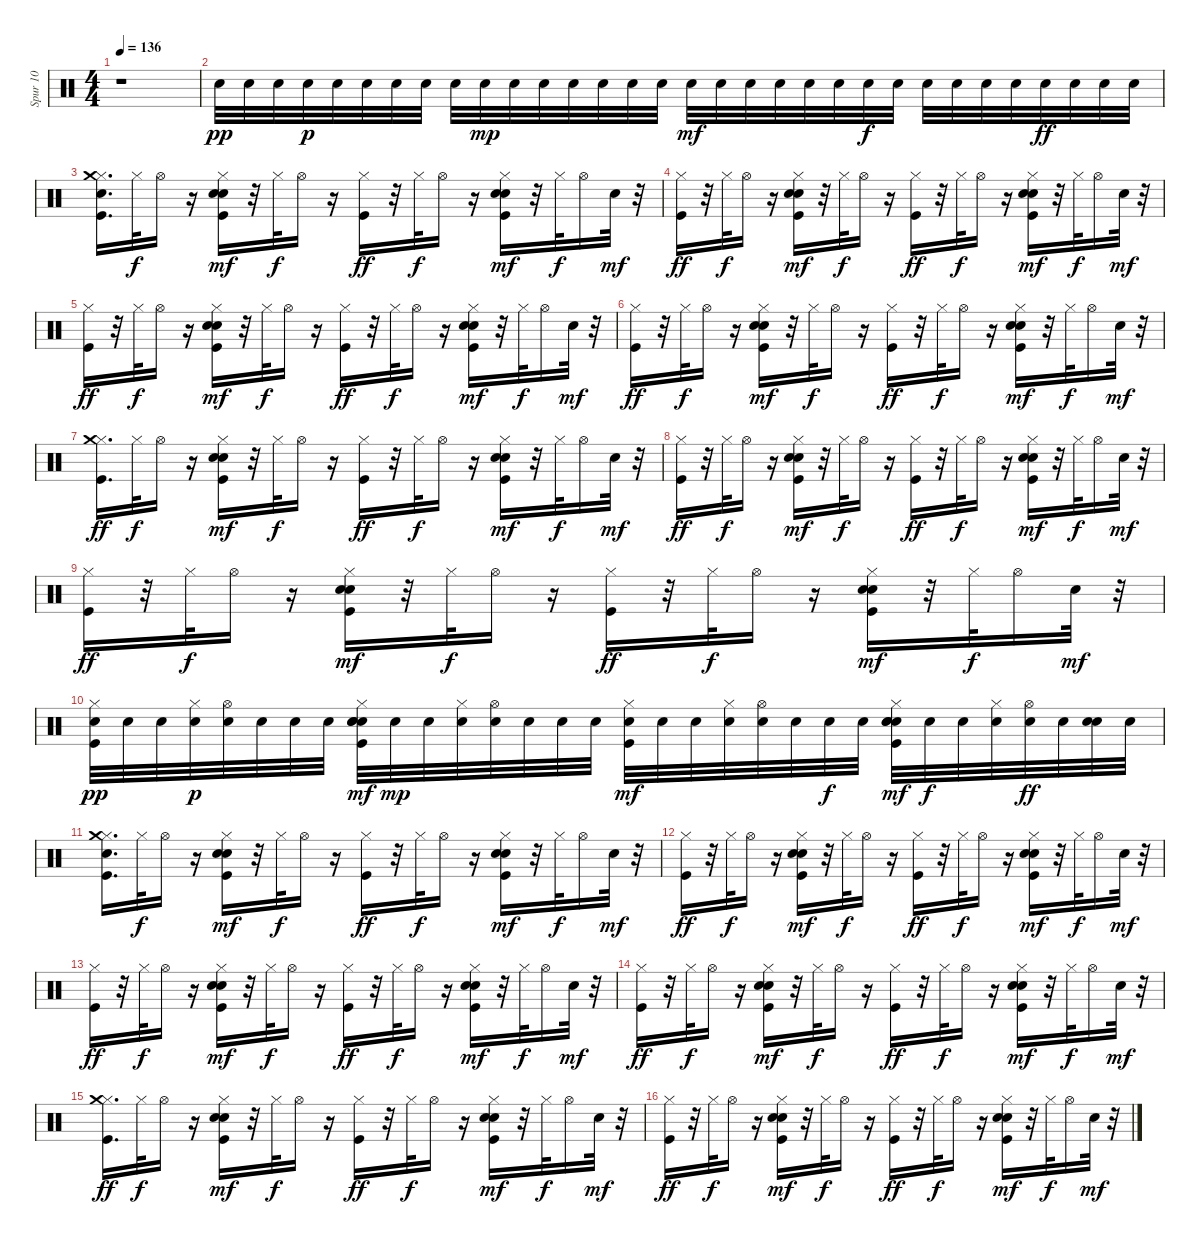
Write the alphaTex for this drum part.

\track ("Spur 10" "Spur 10") {instrument percussion}
\staff {score}
\articulation defaults
\ts (4 4)
\tempo 136
\clef neutral
\ks c
r.1{dy pp} |
"Snare (hit) 2".32{volume 12} "Snare (hit) 2".32 "Snare (hit) 2".32 "Snare (hit) 2".32{dy p} "Snare (hit) 2".32 "Snare (hit) 2".32 "Snare (hit) 2".32 "Snare (hit) 2".32 "Snare (hit) 2".32 "Snare (hit) 2".32{dy mp} "Snare (hit) 2".32 "Snare (hit) 2".32 "Snare (hit) 2".32 "Snare (hit) 2".32 "Snare (hit) 2".32 "Snare (hit) 2".32 "Snare (hit) 2".32{dy mf} "Snare (hit) 2".32 "Snare (hit) 2".32 "Snare (hit) 2".32 "Snare (hit) 2".32 "Snare (hit) 2".32 "Snare (hit) 2".32{dy f} "Snare (hit) 2".32 "Snare (hit) 2".32 "Snare (hit) 2".32 "Snare (hit) 2".32 "Snare (hit) 2".32 "Snare (hit) 2".32{dy ff} "Snare (hit) 2".32 "Snare (hit) 2".32 "Snare (hit) 2".32 |
("Kick (hit)" "Hi-Hat (closed)" "Crash medium (hit)" "Snare (hit) 2").16{d} "Hi-Hat (closed)".32{dy f} "Hi-Hat (open)".16 r.16 ("Kick (hit)" "Snare (hit) 2" "Hi-Hat (closed)" "Hand Clap (hit)").16{dy mf} r.32 "Hi-Hat (closed)".32{dy f} "Hi-Hat (open)".16 r.16 ("Kick (hit)" "Hi-Hat (closed)").16{dy ff} r.32 "Hi-Hat (closed)".32{dy f} "Hi-Hat (open)".16 r.16 ("Kick (hit)" "Snare (hit) 2" "Hi-Hat (closed)" "Hand Clap (hit)").16{dy mf} r.32 "Hi-Hat (closed)".32{dy f} "Hi-Hat (open)".16 "Snare (hit) 2".32{dy mf} r.32 |
("Kick (hit)" "Hi-Hat (closed)").16{dy ff} r.32 "Hi-Hat (closed)".32{dy f} "Hi-Hat (open)".16 r.16 ("Kick (hit)" "Snare (hit) 2" "Hi-Hat (closed)" "Hand Clap (hit)").16{dy mf} r.32 "Hi-Hat (closed)".32{dy f} "Hi-Hat (open)".16 r.16 ("Kick (hit)" "Hi-Hat (closed)").16{dy ff} r.32 "Hi-Hat (closed)".32{dy f} "Hi-Hat (open)".16 r.16 ("Kick (hit)" "Snare (hit) 2" "Hi-Hat (closed)" "Hand Clap (hit)").16{dy mf} r.32 "Hi-Hat (closed)".32{dy f} "Hi-Hat (open)".16 "Snare (hit) 2".32{dy mf} r.32 |
("Kick (hit)" "Hi-Hat (closed)").16{dy ff} r.32 "Hi-Hat (closed)".32{dy f} "Hi-Hat (open)".16 r.16 ("Kick (hit)" "Snare (hit) 2" "Hi-Hat (closed)" "Hand Clap (hit)").16{dy mf} r.32 "Hi-Hat (closed)".32{dy f} "Hi-Hat (open)".16 r.16 ("Kick (hit)" "Hi-Hat (closed)").16{dy ff} r.32 "Hi-Hat (closed)".32{dy f} "Hi-Hat (open)".16 r.16 ("Kick (hit)" "Snare (hit) 2" "Hi-Hat (closed)" "Hand Clap (hit)").16{dy mf} r.32 "Hi-Hat (closed)".32{dy f} "Hi-Hat (open)".16 "Snare (hit) 2".32{dy mf} r.32 |
("Kick (hit)" "Hi-Hat (closed)").16{dy ff} r.32 "Hi-Hat (closed)".32{dy f} "Hi-Hat (open)".16 r.16 ("Kick (hit)" "Snare (hit) 2" "Hi-Hat (closed)" "Hand Clap (hit)").16{dy mf} r.32 "Hi-Hat (closed)".32{dy f} "Hi-Hat (open)".16 r.16 ("Kick (hit)" "Hi-Hat (closed)").16{dy ff} r.32 "Hi-Hat (closed)".32{dy f} "Hi-Hat (open)".16 r.16 ("Kick (hit)" "Snare (hit) 2" "Hi-Hat (closed)" "Hand Clap (hit)").16{dy mf} r.32 "Hi-Hat (closed)".32{dy f} "Hi-Hat (open)".16 "Snare (hit) 2".32{dy mf} r.32 |
("Kick (hit)" "Hi-Hat (closed)" "Crash medium (hit)").16{d dy ff} "Hi-Hat (closed)".32{dy f} "Hi-Hat (open)".16 r.16 ("Kick (hit)" "Snare (hit) 2" "Hi-Hat (closed)" "Hand Clap (hit)").16{dy mf} r.32 "Hi-Hat (closed)".32{dy f} "Hi-Hat (open)".16 r.16 ("Kick (hit)" "Hi-Hat (closed)").16{dy ff} r.32 "Hi-Hat (closed)".32{dy f} "Hi-Hat (open)".16 r.16 ("Kick (hit)" "Snare (hit) 2" "Hi-Hat (closed)" "Hand Clap (hit)").16{dy mf} r.32 "Hi-Hat (closed)".32{dy f} "Hi-Hat (open)".16 "Snare (hit) 2".32{dy mf} r.32 |
("Kick (hit)" "Hi-Hat (closed)").16{dy ff} r.32 "Hi-Hat (closed)".32{dy f} "Hi-Hat (open)".16 r.16 ("Kick (hit)" "Snare (hit) 2" "Hi-Hat (closed)" "Hand Clap (hit)").16{dy mf} r.32 "Hi-Hat (closed)".32{dy f} "Hi-Hat (open)".16 r.16 ("Kick (hit)" "Hi-Hat (closed)").16{dy ff} r.32 "Hi-Hat (closed)".32{dy f} "Hi-Hat (open)".16 r.16 ("Kick (hit)" "Snare (hit) 2" "Hi-Hat (closed)" "Hand Clap (hit)").16{dy mf} r.32 "Hi-Hat (closed)".32{dy f} "Hi-Hat (open)".16 "Snare (hit) 2".32{dy mf} r.32 |
("Kick (hit)" "Hi-Hat (closed)").16{dy ff} r.32 "Hi-Hat (closed)".32{dy f} "Hi-Hat (open)".16 r.16 ("Kick (hit)" "Snare (hit) 2" "Hi-Hat (closed)" "Hand Clap (hit)").16{dy mf} r.32 "Hi-Hat (closed)".32{dy f} "Hi-Hat (open)".16 r.16 ("Kick (hit)" "Hi-Hat (closed)").16{dy ff} r.32 "Hi-Hat (closed)".32{dy f} "Hi-Hat (open)".16 r.16 ("Kick (hit)" "Snare (hit) 2" "Hi-Hat (closed)" "Hand Clap (hit)").16{dy mf} r.32 "Hi-Hat (closed)".32{dy f} "Hi-Hat (open)".16 "Snare (hit) 2".32{dy mf} r.32 |
("Kick (hit)" "Hi-Hat (closed)" "Snare (hit) 2").32{dy pp} "Snare (hit) 2".32 "Snare (hit) 2".32 ("Hi-Hat (closed)" "Snare (hit) 2").32{dy p} ("Hi-Hat (open)" "Snare (hit) 2").32 "Snare (hit) 2".32 "Snare (hit) 2".32 "Snare (hit) 2".32 ("Kick (hit)" "Snare (hit) 2" "Hi-Hat (closed)" "Snare (hit) 2" "Hand Clap (hit)").32{dy mf} "Snare (hit) 2".32{dy mp} "Snare (hit) 2".32 ("Hi-Hat (closed)" "Snare (hit) 2").32 ("Hi-Hat (open)" "Snare (hit) 2").32 "Snare (hit) 2".32 "Snare (hit) 2".32 "Snare (hit) 2".32 ("Kick (hit)" "Hi-Hat (closed)" "Snare (hit) 2").32{dy mf} "Snare (hit) 2".32 "Snare (hit) 2".32 ("Hi-Hat (closed)" "Snare (hit) 2").32 ("Hi-Hat (open)" "Snare (hit) 2").32 "Snare (hit) 2".32 "Snare (hit) 2".32{dy f} "Snare (hit) 2".32 ("Kick (hit)" "Snare (hit) 2" "Hi-Hat (closed)" "Snare (hit) 2" "Hand Clap (hit)").32{dy mf} "Snare (hit) 2".32{dy f} "Snare (hit) 2".32 ("Hi-Hat (closed)" "Snare (hit) 2").32 ("Hi-Hat (open)" "Snare (hit) 2").32{dy ff} "Snare (hit) 2".32 ("Snare (hit) 2" "Snare (hit) 2").32 "Snare (hit) 2".32 |
("Kick (hit)" "Hi-Hat (closed)" "Crash medium (hit)" "Snare (hit) 2").16{d} "Hi-Hat (closed)".32{dy f} "Hi-Hat (open)".16 r.16 ("Kick (hit)" "Snare (hit) 2" "Hi-Hat (closed)" "Hand Clap (hit)").16{dy mf} r.32 "Hi-Hat (closed)".32{dy f} "Hi-Hat (open)".16 r.16 ("Kick (hit)" "Hi-Hat (closed)").16{dy ff} r.32 "Hi-Hat (closed)".32{dy f} "Hi-Hat (open)".16 r.16 ("Kick (hit)" "Snare (hit) 2" "Hi-Hat (closed)" "Hand Clap (hit)").16{dy mf} r.32 "Hi-Hat (closed)".32{dy f} "Hi-Hat (open)".16 "Snare (hit) 2".32{dy mf} r.32 |
("Kick (hit)" "Hi-Hat (closed)").16{dy ff} r.32 "Hi-Hat (closed)".32{dy f} "Hi-Hat (open)".16 r.16 ("Kick (hit)" "Snare (hit) 2" "Hi-Hat (closed)" "Hand Clap (hit)").16{dy mf} r.32 "Hi-Hat (closed)".32{dy f} "Hi-Hat (open)".16 r.16 ("Kick (hit)" "Hi-Hat (closed)").16{dy ff} r.32 "Hi-Hat (closed)".32{dy f} "Hi-Hat (open)".16 r.16 ("Kick (hit)" "Snare (hit) 2" "Hi-Hat (closed)" "Hand Clap (hit)").16{dy mf} r.32 "Hi-Hat (closed)".32{dy f} "Hi-Hat (open)".16 "Snare (hit) 2".32{dy mf} r.32 |
("Kick (hit)" "Hi-Hat (closed)").16{dy ff} r.32 "Hi-Hat (closed)".32{dy f} "Hi-Hat (open)".16 r.16 ("Kick (hit)" "Snare (hit) 2" "Hi-Hat (closed)" "Hand Clap (hit)").16{dy mf} r.32 "Hi-Hat (closed)".32{dy f} "Hi-Hat (open)".16 r.16 ("Kick (hit)" "Hi-Hat (closed)").16{dy ff} r.32 "Hi-Hat (closed)".32{dy f} "Hi-Hat (open)".16 r.16 ("Kick (hit)" "Snare (hit) 2" "Hi-Hat (closed)" "Hand Clap (hit)").16{dy mf} r.32 "Hi-Hat (closed)".32{dy f} "Hi-Hat (open)".16 "Snare (hit) 2".32{dy mf} r.32 |
("Kick (hit)" "Hi-Hat (closed)").16{dy ff} r.32 "Hi-Hat (closed)".32{dy f} "Hi-Hat (open)".16 r.16 ("Kick (hit)" "Snare (hit) 2" "Hi-Hat (closed)" "Hand Clap (hit)").16{dy mf} r.32 "Hi-Hat (closed)".32{dy f} "Hi-Hat (open)".16 r.16 ("Kick (hit)" "Hi-Hat (closed)").16{dy ff} r.32 "Hi-Hat (closed)".32{dy f} "Hi-Hat (open)".16 r.16 ("Kick (hit)" "Snare (hit) 2" "Hi-Hat (closed)" "Hand Clap (hit)").16{dy mf} r.32 "Hi-Hat (closed)".32{dy f} "Hi-Hat (open)".16 "Snare (hit) 2".32{dy mf} r.32 |
("Kick (hit)" "Hi-Hat (closed)" "Crash medium (hit)").16{d dy ff} "Hi-Hat (closed)".32{dy f} "Hi-Hat (open)".16 r.16 ("Kick (hit)" "Snare (hit) 2" "Hi-Hat (closed)" "Hand Clap (hit)").16{dy mf} r.32 "Hi-Hat (closed)".32{dy f} "Hi-Hat (open)".16 r.16 ("Kick (hit)" "Hi-Hat (closed)").16{dy ff} r.32 "Hi-Hat (closed)".32{dy f} "Hi-Hat (open)".16 r.16 ("Kick (hit)" "Snare (hit) 2" "Hi-Hat (closed)" "Hand Clap (hit)").16{dy mf} r.32 "Hi-Hat (closed)".32{dy f} "Hi-Hat (open)".16 "Snare (hit) 2".32{dy mf} r.32 |
("Kick (hit)" "Hi-Hat (closed)").16{dy ff} r.32 "Hi-Hat (closed)".32{dy f} "Hi-Hat (open)".16 r.16 ("Kick (hit)" "Snare (hit) 2" "Hi-Hat (closed)" "Hand Clap (hit)").16{dy mf} r.32 "Hi-Hat (closed)".32{dy f} "Hi-Hat (open)".16 r.16 ("Kick (hit)" "Hi-Hat (closed)").16{dy ff} r.32 "Hi-Hat (closed)".32{dy f} "Hi-Hat (open)".16 r.16 ("Kick (hit)" "Snare (hit) 2" "Hi-Hat (closed)" "Hand Clap (hit)").16{dy mf} r.32 "Hi-Hat (closed)".32{dy f} "Hi-Hat (open)".16 "Snare (hit) 2".32{dy mf} r.32
